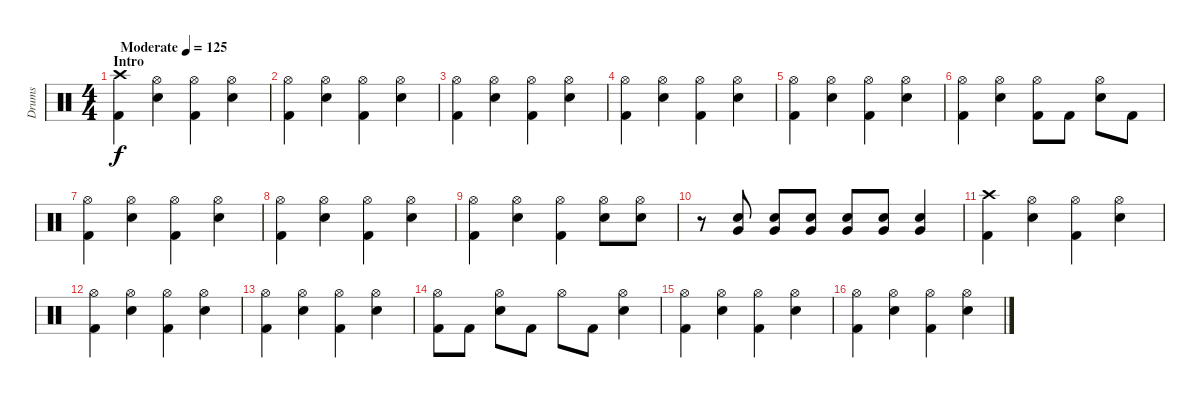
\track ("Drums" "Drums") {instrument percussion}
\staff {score}
\articulation defaults
\ts (4 4)
\section ("" "Intro")
\tempo (125 "Moderate")
\clef neutral
\ks c
("Crash high (hit)" "Kick (hit) 2").4{dy f} ("Hi-Hat (open)" "Snare (hit) 2").4 ("Hi-Hat (open)" "Kick (hit) 2").4 ("Hi-Hat (open)" "Snare (hit) 2").4 |
("Hi-Hat (open)" "Kick (hit) 2").4 ("Hi-Hat (open)" "Snare (hit) 2").4 ("Hi-Hat (open)" "Kick (hit) 2").4 ("Hi-Hat (open)" "Snare (hit) 2").4 |
("Hi-Hat (open)" "Kick (hit) 2").4 ("Hi-Hat (open)" "Snare (hit) 2").4 ("Hi-Hat (open)" "Kick (hit) 2").4 ("Hi-Hat (open)" "Snare (hit) 2").4 |
("Hi-Hat (open)" "Kick (hit) 2").4 ("Hi-Hat (open)" "Snare (hit) 2").4 ("Hi-Hat (open)" "Kick (hit) 2").4 ("Hi-Hat (open)" "Snare (hit) 2").4 |
("Hi-Hat (open)" "Kick (hit) 2").4 ("Hi-Hat (open)" "Snare (hit) 2").4 ("Hi-Hat (open)" "Kick (hit) 2").4 ("Hi-Hat (open)" "Snare (hit) 2").4 |
("Hi-Hat (open)" "Kick (hit) 2").4 ("Hi-Hat (open)" "Snare (hit) 2").4 ("Hi-Hat (open)" "Kick (hit) 2").8 "Kick (hit) 2".8 ("Hi-Hat (open)" "Snare (hit) 2").8 "Kick (hit) 2".8 |
("Hi-Hat (open)" "Kick (hit) 2").4 ("Hi-Hat (open)" "Snare (hit) 2").4 ("Hi-Hat (open)" "Kick (hit) 2").4 ("Hi-Hat (open)" "Snare (hit) 2").4 |
("Hi-Hat (open)" "Kick (hit) 2").4 ("Hi-Hat (open)" "Snare (hit) 2").4 ("Hi-Hat (open)" "Kick (hit) 2").4 ("Hi-Hat (open)" "Snare (hit) 2").4 |
("Hi-Hat (open)" "Kick (hit) 2").4 ("Hi-Hat (open)" "Snare (hit) 2").4 ("Hi-Hat (open)" "Kick (hit) 2").4 ("Hi-Hat (open)" "Snare (hit) 2").8 ("Hi-Hat (open)" "Snare (hit) 2").8 |
r.8 ("Snare (hit) 2" "Very Low Tom (hit)").8 ("Snare (hit) 2" "Very Low Tom (hit)").8 ("Snare (hit) 2" "Very Low Tom (hit)").8 ("Snare (hit) 2" "Very Low Tom (hit)").8 ("Snare (hit) 2" "Very Low Tom (hit)").8 ("Snare (hit) 2" "Very Low Tom (hit)").4 |
("Crash high (hit)" "Kick (hit) 2").4 ("Hi-Hat (open)" "Snare (hit) 2").4 ("Hi-Hat (open)" "Kick (hit) 2").4 ("Hi-Hat (open)" "Snare (hit) 2").4 |
("Hi-Hat (open)" "Kick (hit) 2").4 ("Hi-Hat (open)" "Snare (hit) 2").4 ("Hi-Hat (open)" "Kick (hit) 2").4 ("Hi-Hat (open)" "Snare (hit) 2").4 |
("Hi-Hat (open)" "Kick (hit) 2").4 ("Hi-Hat (open)" "Snare (hit) 2").4 ("Hi-Hat (open)" "Kick (hit) 2").4 ("Hi-Hat (open)" "Snare (hit) 2").4 |
("Hi-Hat (open)" "Kick (hit) 2").8 "Kick (hit) 2".8 ("Hi-Hat (open)" "Snare (hit) 2").8 "Kick (hit) 2".8 "Hi-Hat (open)".8 "Kick (hit) 2".8 ("Hi-Hat (open)" "Snare (hit) 2").4 |
("Hi-Hat (open)" "Kick (hit) 2").4 ("Hi-Hat (open)" "Snare (hit) 2").4 ("Hi-Hat (open)" "Kick (hit) 2").4 ("Hi-Hat (open)" "Snare (hit) 2").4 |
("Hi-Hat (open)" "Kick (hit) 2").4 ("Hi-Hat (open)" "Snare (hit) 2").4 ("Hi-Hat (open)" "Kick (hit) 2").4 ("Hi-Hat (open)" "Snare (hit) 2").4
